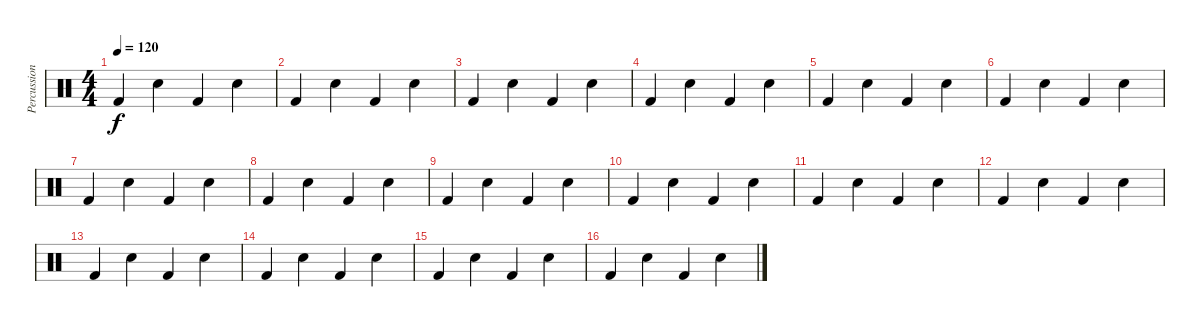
\track ("Percussion" "Percussion") {instrument percussion}
\staff {score}
\articulation defaults
\ts (4 4)
\tempo 120
\clef neutral
\ks c "Kick (hit) 2".4{dy f} "Snare (hit) 2".4 "Kick (hit) 2".4 "Snare (hit) 2".4
|
"Kick (hit) 2".4 "Snare (hit) 2".4 "Kick (hit) 2".4 "Snare (hit) 2".4 |
"Kick (hit) 2".4 "Snare (hit) 2".4 "Kick (hit) 2".4 "Snare (hit) 2".4 |
"Kick (hit) 2".4 "Snare (hit) 2".4 "Kick (hit) 2".4 "Snare (hit) 2".4 |
"Kick (hit) 2".4 "Snare (hit) 2".4 "Kick (hit) 2".4 "Snare (hit) 2".4 |
"Kick (hit) 2".4 "Snare (hit) 2".4 "Kick (hit) 2".4 "Snare (hit) 2".4 |
"Kick (hit) 2".4 "Snare (hit) 2".4 "Kick (hit) 2".4 "Snare (hit) 2".4 |
"Kick (hit) 2".4 "Snare (hit) 2".4 "Kick (hit) 2".4 "Snare (hit) 2".4 |
"Kick (hit) 2".4 "Snare (hit) 2".4 "Kick (hit) 2".4 "Snare (hit) 2".4 |
"Kick (hit) 2".4 "Snare (hit) 2".4 "Kick (hit) 2".4 "Snare (hit) 2".4 |
"Kick (hit) 2".4 "Snare (hit) 2".4 "Kick (hit) 2".4 "Snare (hit) 2".4 |
"Kick (hit) 2".4 "Snare (hit) 2".4 "Kick (hit) 2".4 "Snare (hit) 2".4 |
"Kick (hit) 2".4 "Snare (hit) 2".4 "Kick (hit) 2".4 "Snare (hit) 2".4 |
"Kick (hit) 2".4 "Snare (hit) 2".4 "Kick (hit) 2".4 "Snare (hit) 2".4 |
"Kick (hit) 2".4 "Snare (hit) 2".4 "Kick (hit) 2".4 "Snare (hit) 2".4 |
"Kick (hit) 2".4 "Snare (hit) 2".4 "Kick (hit) 2".4 "Snare (hit) 2".4
